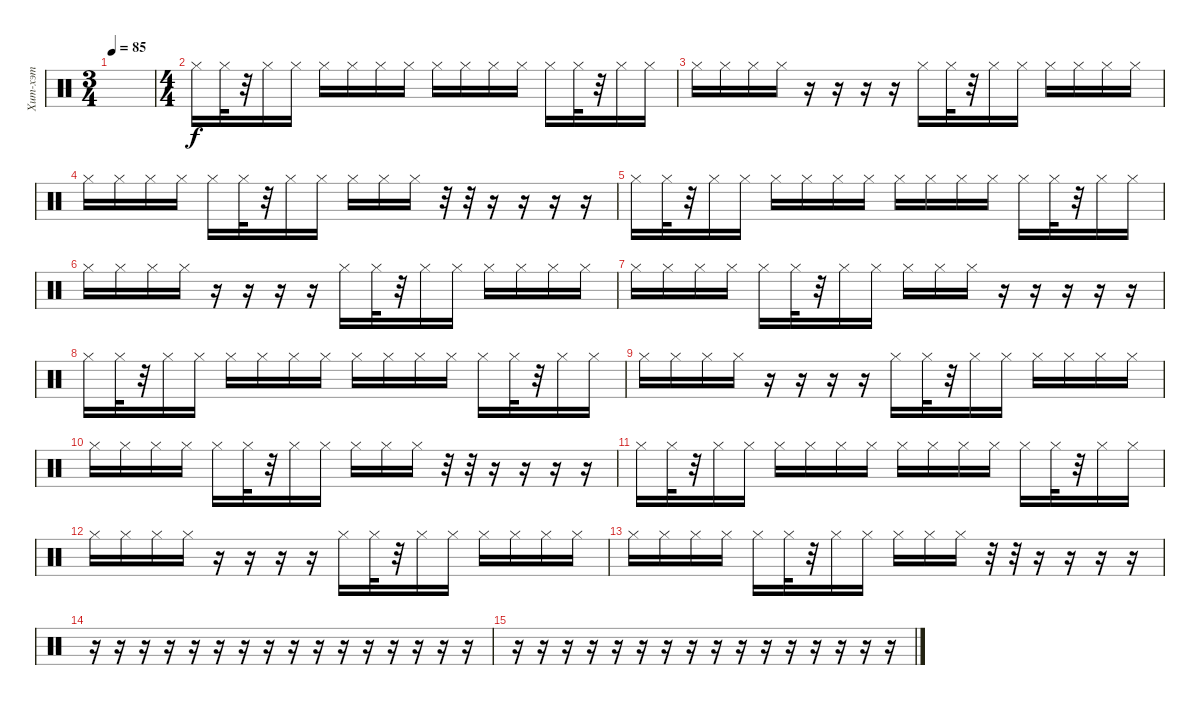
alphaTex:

\track ("Хит-хэт" "Хит-хэт") {instrument percussion}
\staff {score}
\articulation defaults
\ts (3 4)
\tempo 85
\clef neutral
\ks c
|
\ts (4 4)
"Hi-Hat (closed)".16 "Hi-Hat (closed)".32 r.32 "Hi-Hat (closed)".16 "Hi-Hat (closed)".16 "Hi-Hat (closed)".16 "Hi-Hat (closed)".16 "Hi-Hat (closed)".16 "Hi-Hat (closed)".16 "Hi-Hat (closed)".16 "Hi-Hat (closed)".16 "Hi-Hat (closed)".16 "Hi-Hat (closed)".16 "Hi-Hat (closed)".16 "Hi-Hat (closed)".32 r.32 "Hi-Hat (closed)".16 "Hi-Hat (closed)".16 |
"Hi-Hat (closed)".16 "Hi-Hat (closed)".16 "Hi-Hat (closed)".16 "Hi-Hat (closed)".16 r.16 r.16 r.16 r.16 "Hi-Hat (closed)".16 "Hi-Hat (closed)".32 r.32 "Hi-Hat (closed)".16 "Hi-Hat (closed)".16 "Hi-Hat (closed)".16 "Hi-Hat (closed)".16 "Hi-Hat (closed)".16 "Hi-Hat (closed)".16 |
"Hi-Hat (closed)".16 "Hi-Hat (closed)".16 "Hi-Hat (closed)".16 "Hi-Hat (closed)".16 "Hi-Hat (closed)".16 "Hi-Hat (closed)".32 r.32 "Hi-Hat (closed)".16 "Hi-Hat (closed)".16 "Hi-Hat (closed)".16 "Hi-Hat (closed)".16 "Hi-Hat (closed)".16 r.32 r.32 r.16 r.16 r.16 r.16 |
"Hi-Hat (closed)".16 "Hi-Hat (closed)".32 r.32 "Hi-Hat (closed)".16 "Hi-Hat (closed)".16 "Hi-Hat (closed)".16 "Hi-Hat (closed)".16 "Hi-Hat (closed)".16 "Hi-Hat (closed)".16 "Hi-Hat (closed)".16 "Hi-Hat (closed)".16 "Hi-Hat (closed)".16 "Hi-Hat (closed)".16 "Hi-Hat (closed)".16 "Hi-Hat (closed)".32 r.32 "Hi-Hat (closed)".16 "Hi-Hat (closed)".16 |
"Hi-Hat (closed)".16 "Hi-Hat (closed)".16 "Hi-Hat (closed)".16 "Hi-Hat (closed)".16 r.16 r.16 r.16 r.16 "Hi-Hat (closed)".16 "Hi-Hat (closed)".32 r.32 "Hi-Hat (closed)".16 "Hi-Hat (closed)".16 "Hi-Hat (closed)".16 "Hi-Hat (closed)".16 "Hi-Hat (closed)".16 "Hi-Hat (closed)".16 |
"Hi-Hat (closed)".16 "Hi-Hat (closed)".16 "Hi-Hat (closed)".16 "Hi-Hat (closed)".16 "Hi-Hat (closed)".16 "Hi-Hat (closed)".32 r.32 "Hi-Hat (closed)".16 "Hi-Hat (closed)".16 "Hi-Hat (closed)".16 "Hi-Hat (closed)".16 "Hi-Hat (closed)".16 r.16 r.16 r.16 r.16 r.16 |
"Hi-Hat (closed)".16 "Hi-Hat (closed)".32 r.32 "Hi-Hat (closed)".16 "Hi-Hat (closed)".16 "Hi-Hat (closed)".16 "Hi-Hat (closed)".16 "Hi-Hat (closed)".16 "Hi-Hat (closed)".16 "Hi-Hat (closed)".16 "Hi-Hat (closed)".16 "Hi-Hat (closed)".16 "Hi-Hat (closed)".16 "Hi-Hat (closed)".16 "Hi-Hat (closed)".32 r.32 "Hi-Hat (closed)".16 "Hi-Hat (closed)".16 |
"Hi-Hat (closed)".16 "Hi-Hat (closed)".16 "Hi-Hat (closed)".16 "Hi-Hat (closed)".16 r.16 r.16 r.16 r.16 "Hi-Hat (closed)".16 "Hi-Hat (closed)".32 r.32 "Hi-Hat (closed)".16 "Hi-Hat (closed)".16 "Hi-Hat (closed)".16 "Hi-Hat (closed)".16 "Hi-Hat (closed)".16 "Hi-Hat (closed)".16 |
"Hi-Hat (closed)".16 "Hi-Hat (closed)".16 "Hi-Hat (closed)".16 "Hi-Hat (closed)".16 "Hi-Hat (closed)".16 "Hi-Hat (closed)".32 r.32 "Hi-Hat (closed)".16 "Hi-Hat (closed)".16 "Hi-Hat (closed)".16 "Hi-Hat (closed)".16 "Hi-Hat (closed)".16 r.32 r.32 r.16 r.16 r.16 r.16 |
"Hi-Hat (closed)".16 "Hi-Hat (closed)".32 r.32 "Hi-Hat (closed)".16 "Hi-Hat (closed)".16 "Hi-Hat (closed)".16 "Hi-Hat (closed)".16 "Hi-Hat (closed)".16 "Hi-Hat (closed)".16 "Hi-Hat (closed)".16 "Hi-Hat (closed)".16 "Hi-Hat (closed)".16 "Hi-Hat (closed)".16 "Hi-Hat (closed)".16 "Hi-Hat (closed)".32 r.32 "Hi-Hat (closed)".16 "Hi-Hat (closed)".16 |
"Hi-Hat (closed)".16 "Hi-Hat (closed)".16 "Hi-Hat (closed)".16 "Hi-Hat (closed)".16 r.16 r.16 r.16 r.16 "Hi-Hat (closed)".16 "Hi-Hat (closed)".32 r.32 "Hi-Hat (closed)".16 "Hi-Hat (closed)".16 "Hi-Hat (closed)".16 "Hi-Hat (closed)".16 "Hi-Hat (closed)".16 "Hi-Hat (closed)".16 |
"Hi-Hat (closed)".16 "Hi-Hat (closed)".16 "Hi-Hat (closed)".16 "Hi-Hat (closed)".16 "Hi-Hat (closed)".16 "Hi-Hat (closed)".32 r.32 "Hi-Hat (closed)".16 "Hi-Hat (closed)".16 "Hi-Hat (closed)".16 "Hi-Hat (closed)".16 "Hi-Hat (closed)".16 r.32 r.32 r.16 r.16 r.16 r.16 |
r.16 r.16 r.16 r.16 r.16 r.16 r.16 r.16 r.16 r.16 r.16 r.16 r.16 r.16 r.16 r.16 |
r.16 r.16 r.16 r.16 r.16 r.16 r.16 r.16 r.16 r.16 r.16 r.16 r.16 r.16 r.16 r.16
